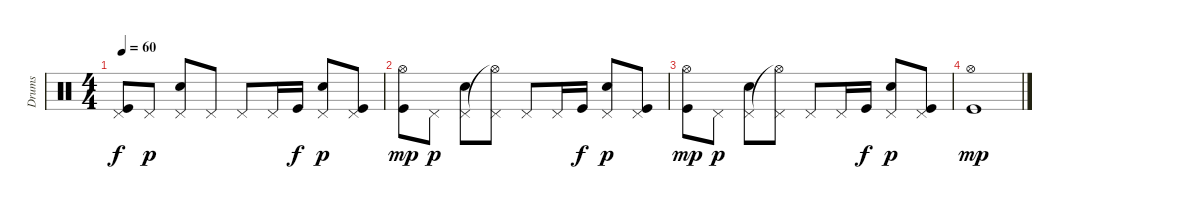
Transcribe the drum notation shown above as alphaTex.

\track ("Drums" "Drums") {instrument percussion}
\staff {score}
\articulation defaults
\ts (4 4)
\tempo 60
\clef neutral
\ks c
("Pedal Hi-Hat (hit)" "Kick (hit)").8{dy f} "Pedal Hi-Hat (hit)".8{dy p} ("Pedal Hi-Hat (hit)" "Electric Snare (hit)").8 "Pedal Hi-Hat (hit)".8 "Pedal Hi-Hat (hit)".8 "Pedal Hi-Hat (hit)".16 "Kick (hit)".16{dy f} ("Pedal Hi-Hat (hit)" "Electric Snare (hit)").8{dy p} ("Pedal Hi-Hat (hit)" "Kick (hit)").8 |
("Hi-Hat (open)" "Kick (hit)").8{dy mp} "Pedal Hi-Hat (hit)".8{dy p} ("Pedal Hi-Hat (hit)" "Electric Snare (hit)").8 ("Hi-Hat (open)"{t} "Pedal Hi-Hat (hit)").8 "Pedal Hi-Hat (hit)".8 "Pedal Hi-Hat (hit)".16 "Kick (hit)".16{dy f} ("Pedal Hi-Hat (hit)" "Electric Snare (hit)").8{dy p} ("Pedal Hi-Hat (hit)" "Kick (hit)").8 |
("Hi-Hat (open)" "Kick (hit)").8{dy mp} "Pedal Hi-Hat (hit)".8{dy p} ("Pedal Hi-Hat (hit)" "Electric Snare (hit)").8 ("Hi-Hat (open)"{t} "Pedal Hi-Hat (hit)").8 "Pedal Hi-Hat (hit)".8 "Pedal Hi-Hat (hit)".16 "Kick (hit)".16{dy f} ("Pedal Hi-Hat (hit)" "Electric Snare (hit)").8{dy p} ("Pedal Hi-Hat (hit)" "Kick (hit)").8 |
("Hi-Hat (open)" "Kick (hit)").1{dy mp}
